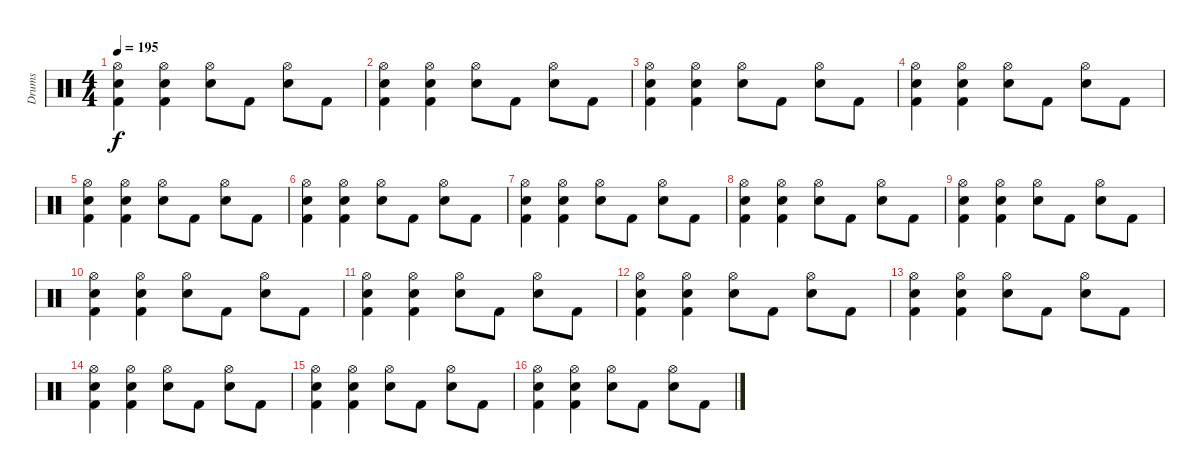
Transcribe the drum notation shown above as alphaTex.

\track ("Drums" "Drums") {instrument percussion}
\staff {score}
\articulation defaults
\ts (4 4)
\tempo 195
\clef neutral
\ks c
("Hi-Hat (open)" "Electric Snare (hit)" "Kick (hit) 2").4{dy f} ("Hi-Hat (open)" "Electric Snare (hit)" "Kick (hit) 2").4 ("Hi-Hat (open)" "Electric Snare (hit)").8 "Kick (hit) 2".8 ("Hi-Hat (open)" "Electric Snare (hit)").8 "Kick (hit) 2".8 |
("Hi-Hat (open)" "Electric Snare (hit)" "Kick (hit) 2").4 ("Hi-Hat (open)" "Electric Snare (hit)" "Kick (hit) 2").4 ("Hi-Hat (open)" "Electric Snare (hit)").8 "Kick (hit) 2".8 ("Hi-Hat (open)" "Electric Snare (hit)").8 "Kick (hit) 2".8 |
("Hi-Hat (open)" "Electric Snare (hit)" "Kick (hit) 2").4 ("Hi-Hat (open)" "Electric Snare (hit)" "Kick (hit) 2").4 ("Hi-Hat (open)" "Electric Snare (hit)").8 "Kick (hit) 2".8 ("Hi-Hat (open)" "Electric Snare (hit)").8 "Kick (hit) 2".8 |
("Hi-Hat (open)" "Electric Snare (hit)" "Kick (hit) 2").4 ("Hi-Hat (open)" "Electric Snare (hit)" "Kick (hit) 2").4 ("Hi-Hat (open)" "Electric Snare (hit)").8 "Kick (hit) 2".8 ("Hi-Hat (open)" "Electric Snare (hit)").8 "Kick (hit) 2".8 |
("Hi-Hat (open)" "Electric Snare (hit)" "Kick (hit) 2").4 ("Hi-Hat (open)" "Electric Snare (hit)" "Kick (hit) 2").4 ("Hi-Hat (open)" "Electric Snare (hit)").8 "Kick (hit) 2".8 ("Hi-Hat (open)" "Electric Snare (hit)").8 "Kick (hit) 2".8 |
("Hi-Hat (open)" "Electric Snare (hit)" "Kick (hit) 2").4 ("Hi-Hat (open)" "Electric Snare (hit)" "Kick (hit) 2").4 ("Hi-Hat (open)" "Electric Snare (hit)").8 "Kick (hit) 2".8 ("Hi-Hat (open)" "Electric Snare (hit)").8 "Kick (hit) 2".8 |
("Hi-Hat (open)" "Electric Snare (hit)" "Kick (hit) 2").4 ("Hi-Hat (open)" "Electric Snare (hit)" "Kick (hit) 2").4 ("Hi-Hat (open)" "Electric Snare (hit)").8 "Kick (hit) 2".8 ("Hi-Hat (open)" "Electric Snare (hit)").8 "Kick (hit) 2".8 |
("Hi-Hat (open)" "Electric Snare (hit)" "Kick (hit) 2").4 ("Hi-Hat (open)" "Electric Snare (hit)" "Kick (hit) 2").4 ("Hi-Hat (open)" "Electric Snare (hit)").8 "Kick (hit) 2".8 ("Hi-Hat (open)" "Electric Snare (hit)").8 "Kick (hit) 2".8 |
("Hi-Hat (open)" "Electric Snare (hit)" "Kick (hit) 2").4 ("Hi-Hat (open)" "Electric Snare (hit)" "Kick (hit) 2").4 ("Hi-Hat (open)" "Electric Snare (hit)").8 "Kick (hit) 2".8 ("Hi-Hat (open)" "Electric Snare (hit)").8 "Kick (hit) 2".8 |
("Hi-Hat (open)" "Electric Snare (hit)" "Kick (hit) 2").4 ("Hi-Hat (open)" "Electric Snare (hit)" "Kick (hit) 2").4 ("Hi-Hat (open)" "Electric Snare (hit)").8 "Kick (hit) 2".8 ("Hi-Hat (open)" "Electric Snare (hit)").8 "Kick (hit) 2".8 |
("Hi-Hat (open)" "Electric Snare (hit)" "Kick (hit) 2").4 ("Hi-Hat (open)" "Electric Snare (hit)" "Kick (hit) 2").4 ("Hi-Hat (open)" "Electric Snare (hit)").8 "Kick (hit) 2".8 ("Hi-Hat (open)" "Electric Snare (hit)").8 "Kick (hit) 2".8 |
("Hi-Hat (open)" "Electric Snare (hit)" "Kick (hit) 2").4 ("Hi-Hat (open)" "Electric Snare (hit)" "Kick (hit) 2").4 ("Hi-Hat (open)" "Electric Snare (hit)").8 "Kick (hit) 2".8 ("Hi-Hat (open)" "Electric Snare (hit)").8 "Kick (hit) 2".8 |
("Hi-Hat (open)" "Electric Snare (hit)" "Kick (hit) 2").4 ("Hi-Hat (open)" "Electric Snare (hit)" "Kick (hit) 2").4 ("Hi-Hat (open)" "Electric Snare (hit)").8 "Kick (hit) 2".8 ("Hi-Hat (open)" "Electric Snare (hit)").8 "Kick (hit) 2".8 |
("Hi-Hat (open)" "Electric Snare (hit)" "Kick (hit) 2").4 ("Hi-Hat (open)" "Electric Snare (hit)" "Kick (hit) 2").4 ("Hi-Hat (open)" "Electric Snare (hit)").8 "Kick (hit) 2".8 ("Hi-Hat (open)" "Electric Snare (hit)").8 "Kick (hit) 2".8 |
("Hi-Hat (open)" "Electric Snare (hit)" "Kick (hit) 2").4 ("Hi-Hat (open)" "Electric Snare (hit)" "Kick (hit) 2").4 ("Hi-Hat (open)" "Electric Snare (hit)").8 "Kick (hit) 2".8 ("Hi-Hat (open)" "Electric Snare (hit)").8 "Kick (hit) 2".8 |
("Hi-Hat (open)" "Electric Snare (hit)" "Kick (hit) 2").4 ("Hi-Hat (open)" "Electric Snare (hit)" "Kick (hit) 2").4 ("Hi-Hat (open)" "Electric Snare (hit)").8 "Kick (hit) 2".8 ("Hi-Hat (open)" "Electric Snare (hit)").8 "Kick (hit) 2".8
